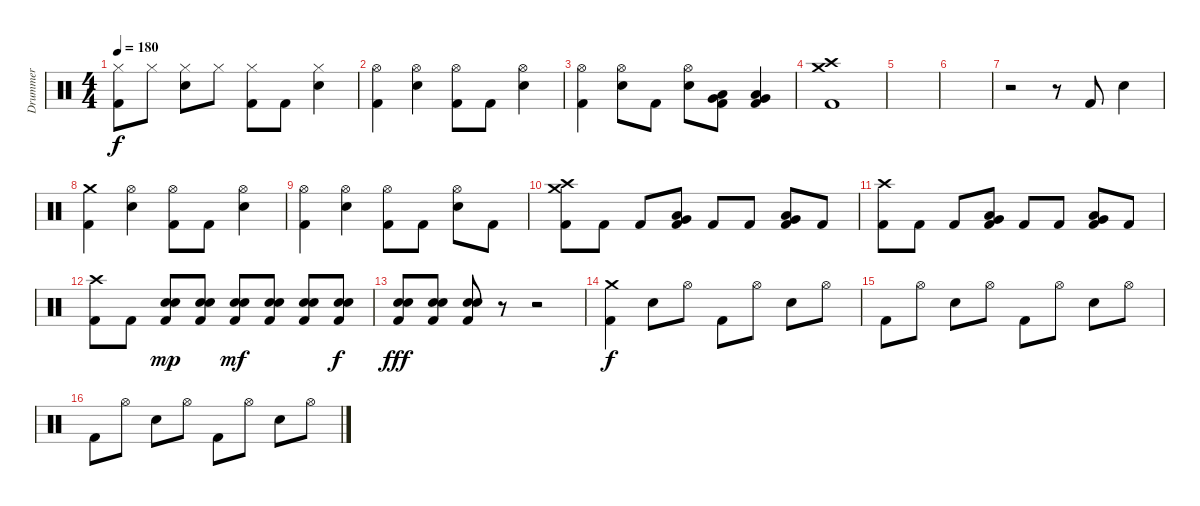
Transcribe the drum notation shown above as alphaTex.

\track ("Drummer" "Drummer") {instrument percussion}
\staff {score}
\articulation defaults
\ts (4 4)
\tempo 180
\clef neutral
\ks c
("Hi-Hat (closed)" "Kick (hit) 2").8{dy f} "Hi-Hat (closed)".8 ("Hi-Hat (closed)" "Electric Snare (hit)").8 "Hi-Hat (closed)".8 ("Hi-Hat (closed)" "Kick (hit) 2").8 "Kick (hit) 2".8 ("Hi-Hat (closed)" "Electric Snare (hit)").4 |
("Hi-Hat (open)" "Kick (hit) 2").4 ("Hi-Hat (open)" "Electric Snare (hit)").4 ("Hi-Hat (open)" "Kick (hit) 2").8 "Kick (hit) 2".8 ("Hi-Hat (open)" "Electric Snare (hit)").4 |
("Hi-Hat (open)" "Kick (hit) 2").4 ("Hi-Hat (open)" "Electric Snare (hit)").8 "Kick (hit) 2".8 ("Hi-Hat (open)" "Electric Snare (hit)").8 ("Low Floor Tom (hit)" "Very Low Tom (hit)" "Kick (hit) 2").8 ("Low Floor Tom (hit)" "Very Low Tom (hit)" "Kick (hit) 2").4 |
("Crash high (hit)" "Crash medium (hit)" "Kick (hit) 2").1 |
|
|
r.2 r.8 "Kick (hit) 2".8 "Electric Snare (hit)".4 |
("Crash medium (hit)" "Kick (hit) 2").4 ("Hi-Hat (open)" "Electric Snare (hit)").4 ("Hi-Hat (open)" "Kick (hit) 2").8 "Kick (hit) 2".8 ("Hi-Hat (open)" "Electric Snare (hit)").4 |
("Hi-Hat (open)" "Kick (hit) 2").4 ("Hi-Hat (open)" "Electric Snare (hit)").4 ("Hi-Hat (open)" "Kick (hit) 2").8 "Kick (hit) 2".8 ("Hi-Hat (open)" "Electric Snare (hit)").8 "Kick (hit) 2".8 |
("Crash high (hit)" "Crash medium (hit)" "Kick (hit) 2").8 "Kick (hit) 2".8 "Kick (hit) 2".8 ("Very Low Tom (hit)" "Low Floor Tom (hit)" "Kick (hit) 2").8 "Kick (hit) 2".8 "Kick (hit) 2".8 ("Very Low Tom (hit)" "Low Floor Tom (hit)" "Kick (hit) 2").8 "Kick (hit) 2".8 |
("Crash high (hit)" "Kick (hit) 2").8 "Kick (hit) 2".8 "Kick (hit) 2".8 ("Very Low Tom (hit)" "Low Floor Tom (hit)" "Kick (hit) 2").8 "Kick (hit) 2".8 "Kick (hit) 2".8 ("Very Low Tom (hit)" "Low Floor Tom (hit)" "Kick (hit) 2").8 "Kick (hit) 2".8 |
("Crash high (hit)" "Kick (hit) 2").8 "Kick (hit) 2".8 ("Electric Snare (hit)" "Electric Snare (hit)" "Kick (hit) 2").8{dy mp} ("Electric Snare (hit)" "Electric Snare (hit)" "Kick (hit) 2").8 ("Electric Snare (hit)" "Electric Snare (hit)" "Kick (hit) 2").8{dy mf} ("Electric Snare (hit)" "Electric Snare (hit)" "Kick (hit) 2").8 ("Electric Snare (hit)" "Electric Snare (hit)" "Kick (hit) 2").8 ("Electric Snare (hit)" "Electric Snare (hit)" "Kick (hit) 2").8{dy f} |
("Electric Snare (hit)" "Electric Snare (hit)" "Kick (hit) 2").8{dy fff} ("Electric Snare (hit)" "Electric Snare (hit)" "Kick (hit) 2").8 ("Electric Snare (hit)" "Electric Snare (hit)" "Kick (hit) 2").8 r.8 r.2 |
("Crash medium (hit)" "Kick (hit) 2").4{dy f} "Electric Snare (hit)".8 "Hi-Hat (open)".8 "Kick (hit) 2".8 "Hi-Hat (open)".8 "Electric Snare (hit)".8 "Hi-Hat (open)".8 |
"Kick (hit) 2".8 "Hi-Hat (open)".8 "Electric Snare (hit)".8 "Hi-Hat (open)".8 "Kick (hit) 2".8 "Hi-Hat (open)".8 "Electric Snare (hit)".8 "Hi-Hat (open)".8 |
"Kick (hit) 2".8 "Hi-Hat (open)".8 "Electric Snare (hit)".8 "Hi-Hat (open)".8 "Kick (hit) 2".8 "Hi-Hat (open)".8 "Electric Snare (hit)".8 "Hi-Hat (open)".8
